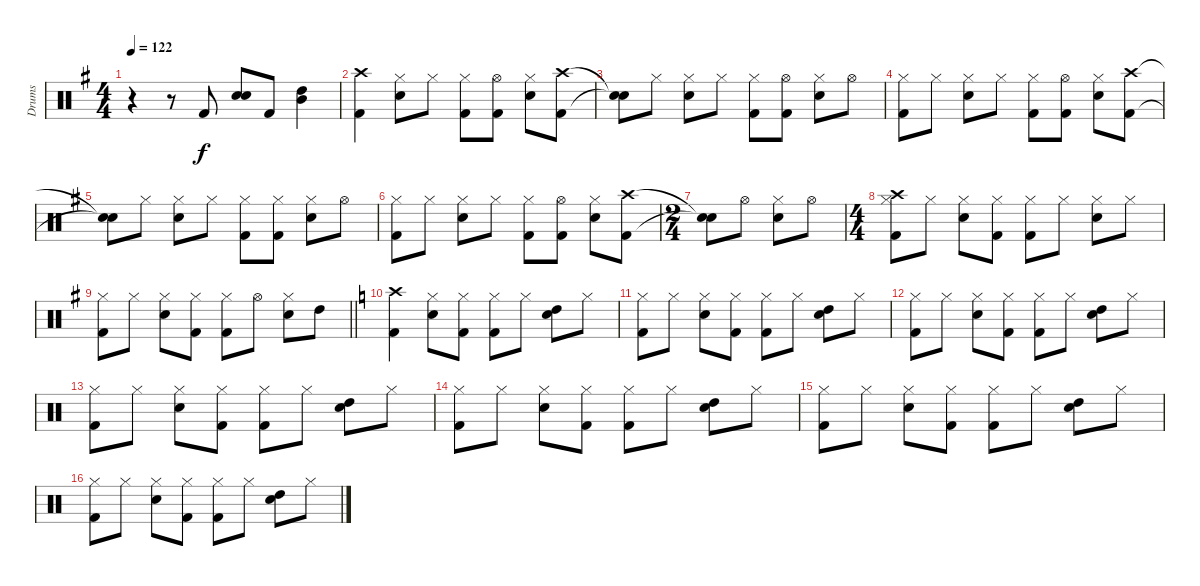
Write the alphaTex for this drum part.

\track ("Drums" "Drums") {instrument percussion}
\staff {score}
\articulation defaults
\ts (4 4)
\tempo 122
\clef neutral
\ks g
r.4{dy f} r.8 "Kick (hit) 2".8 ("Snare (hit) 2" "Electric Snare (hit)").8 "Kick (hit) 2".8 ("Mid Tom (hit)" "High Tom (hit)").4 |
("Crash high (hit)" "Kick (hit) 2").4 ("Hi-Hat (closed)" "Electric Snare (hit)").8 "Hi-Hat (closed)".8 ("Hi-Hat (closed)" "Kick (hit) 2").8 ("Hi-Hat (open)" "Kick (hit) 2").8 ("Hi-Hat (closed)" "Electric Snare (hit)").8 ("Crash high (hit)" "Kick (hit) 2").8 |
("Snare (hit)"{t} "Snare (hit)"{t}).8 "Hi-Hat (closed)".8 ("Hi-Hat (closed)" "Electric Snare (hit)").8 "Hi-Hat (closed)".8 ("Hi-Hat (closed)" "Kick (hit) 2").8 ("Hi-Hat (open)" "Kick (hit) 2").8 ("Hi-Hat (closed)" "Electric Snare (hit)").8 "Hi-Hat (open)".8 |
("Hi-Hat (closed)" "Kick (hit) 2").8 "Hi-Hat (closed)".8 ("Hi-Hat (closed)" "Electric Snare (hit)").8 "Hi-Hat (closed)".8 ("Hi-Hat (closed)" "Kick (hit) 2").8 ("Hi-Hat (open)" "Kick (hit) 2").8 ("Hi-Hat (closed)" "Electric Snare (hit)").8 ("Crash high (hit)" "Kick (hit) 2").8 |
("Snare (hit)"{t} "Snare (hit)"{t}).8 "Hi-Hat (closed)".8 ("Hi-Hat (closed)" "Electric Snare (hit)").8 "Hi-Hat (closed)".8 ("Hi-Hat (closed)" "Kick (hit) 2").8 ("Hi-Hat (closed)" "Kick (hit) 2").8 ("Hi-Hat (closed)" "Electric Snare (hit)").8 "Hi-Hat (open)".8 |
("Hi-Hat (closed)" "Kick (hit) 2").8 "Hi-Hat (closed)".8 ("Hi-Hat (closed)" "Electric Snare (hit)").8 "Hi-Hat (closed)".8 ("Hi-Hat (closed)" "Kick (hit) 2").8 ("Hi-Hat (open)" "Kick (hit) 2").8 ("Hi-Hat (closed)" "Electric Snare (hit)").8 ("Crash high (hit)" "Kick (hit) 2").8 |
\ts (2 4)
("Snare (hit)"{t} "Snare (hit)"{t}).8 "Hi-Hat (open)".8 ("Hi-Hat (closed)" "Electric Snare (hit)").8 "Hi-Hat (open)".8 |
\ts (4 4)
("Hi-Hat (closed)" "Crash high (hit)" "Kick (hit) 2").8 "Hi-Hat (closed)".8 ("Hi-Hat (closed)" "Electric Snare (hit)").8 ("Hi-Hat (closed)" "Kick (hit) 2").8 ("Hi-Hat (closed)" "Kick (hit) 2").8 "Hi-Hat (closed)".8 ("Hi-Hat (closed)" "Electric Snare (hit)").8 "Hi-Hat (closed)".8 |
\barLineRight lightlight
("Hi-Hat (closed)" "Kick (hit) 2").8 "Hi-Hat (closed)".8 ("Hi-Hat (closed)" "Electric Snare (hit)").8 ("Hi-Hat (closed)" "Kick (hit) 2").8 ("Hi-Hat (closed)" "Kick (hit) 2").8 "Hi-Hat (open)".8 ("Hi-Hat (closed)" "Electric Snare (hit)").8 "High Tom (hit)".8 |
\ks c
("Crash high (hit)" "Kick (hit) 2").4 ("Hi-Hat (closed)" "Electric Snare (hit)").8 ("Hi-Hat (closed)" "Kick (hit) 2").8 ("Hi-Hat (closed)" "Kick (hit) 2").8 "Hi-Hat (closed)".8 ("Electric Snare (hit)" "High Tom (hit)").8 "Hi-Hat (closed)".8 |
("Hi-Hat (closed)" "Kick (hit) 2").8 "Hi-Hat (closed)".8 ("Hi-Hat (closed)" "Electric Snare (hit)").8 ("Hi-Hat (closed)" "Kick (hit) 2").8 ("Hi-Hat (closed)" "Kick (hit) 2").8 "Hi-Hat (closed)".8 ("Electric Snare (hit)" "High Tom (hit)").8 "Hi-Hat (closed)".8 |
("Hi-Hat (closed)" "Kick (hit) 2").8 "Hi-Hat (closed)".8 ("Hi-Hat (closed)" "Electric Snare (hit)").8 ("Hi-Hat (closed)" "Kick (hit) 2").8 ("Hi-Hat (closed)" "Kick (hit) 2").8 "Hi-Hat (closed)".8 ("Electric Snare (hit)" "High Tom (hit)").8 "Hi-Hat (closed)".8 |
("Hi-Hat (closed)" "Kick (hit) 2").8 "Hi-Hat (closed)".8 ("Hi-Hat (closed)" "Electric Snare (hit)").8 ("Hi-Hat (closed)" "Kick (hit) 2").8 ("Hi-Hat (closed)" "Kick (hit) 2").8 "Hi-Hat (closed)".8 ("Electric Snare (hit)" "High Tom (hit)").8 "Hi-Hat (closed)".8 |
("Hi-Hat (closed)" "Kick (hit) 2").8 "Hi-Hat (closed)".8 ("Hi-Hat (closed)" "Electric Snare (hit)").8 ("Hi-Hat (closed)" "Kick (hit) 2").8 ("Hi-Hat (closed)" "Kick (hit) 2").8 "Hi-Hat (closed)".8 ("Electric Snare (hit)" "High Tom (hit)").8 "Hi-Hat (closed)".8 |
("Hi-Hat (closed)" "Kick (hit) 2").8 "Hi-Hat (closed)".8 ("Hi-Hat (closed)" "Electric Snare (hit)").8 ("Hi-Hat (closed)" "Kick (hit) 2").8 ("Hi-Hat (closed)" "Kick (hit) 2").8 "Hi-Hat (closed)".8 ("Electric Snare (hit)" "High Tom (hit)").8 "Hi-Hat (closed)".8 |
("Hi-Hat (closed)" "Kick (hit) 2").8 "Hi-Hat (closed)".8 ("Hi-Hat (closed)" "Electric Snare (hit)").8 ("Hi-Hat (closed)" "Kick (hit) 2").8 ("Hi-Hat (closed)" "Kick (hit) 2").8 "Hi-Hat (closed)".8 ("Electric Snare (hit)" "High Tom (hit)").8 "Hi-Hat (closed)".8
